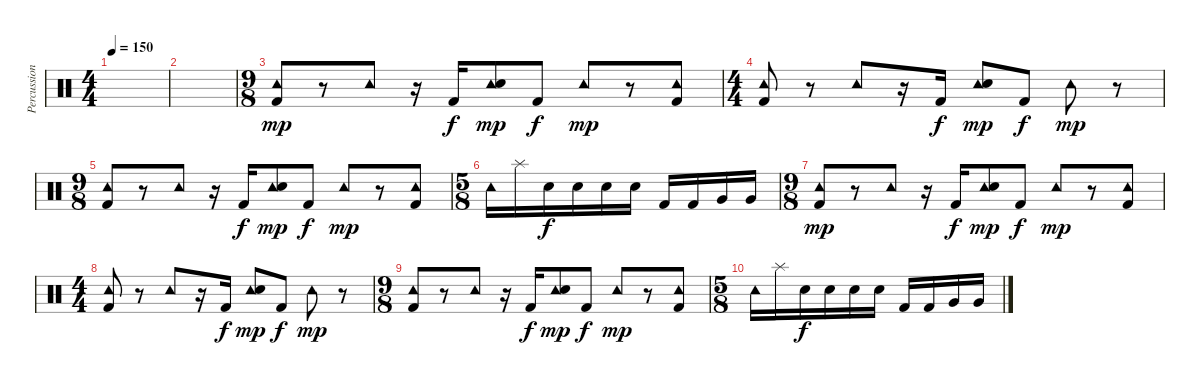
\track ("Percussion" "Percussion") {instrument percussion}
\staff {score}
\articulation defaults
\ts (4 4)
\tempo 150
\clef neutral
\ks c
|
|
\ts (9 8)
("Tambourine (hit)" "Kick (hit) 2").8{dy mp} r.8 "Tambourine (hit)".8 r.16 "Kick (hit) 2".16{dy f} ("Tambourine (hit)" "Electric Snare (hit)").8{dy mp} "Kick (hit) 2".8{dy f} "Tambourine (hit)".8{dy mp} r.8 ("Tambourine (hit)" "Kick (hit) 2").8 |
\ts (4 4)
("Tambourine (hit)" "Kick (hit) 2").8 r.8 "Tambourine (hit)".8 r.16 "Kick (hit) 2".16{dy f} ("Tambourine (hit)" "Electric Snare (hit)").8{dy mp} "Kick (hit) 2".8{dy f} "Tambourine (hit)".8{dy mp} r.8 |
\ts (9 8)
("Tambourine (hit)" "Kick (hit) 2").8 r.8 "Tambourine (hit)".8 r.16 "Kick (hit) 2".16{dy f} ("Tambourine (hit)" "Electric Snare (hit)").8{dy mp} "Kick (hit) 2".8{dy f} "Tambourine (hit)".8{dy mp} r.8 ("Tambourine (hit)" "Kick (hit) 2").8 |
\ts (5 8)
"Tambourine (hit)".16 "Splash (hit)".16 "Electric Snare (hit)".16{dy f} "Electric Snare (hit)".16 "Electric Snare (hit)".16 "Electric Snare (hit)".16 "Kick (hit) 2".16 "Kick (hit) 2".16 "Very Low Tom (hit)".16 "Very Low Tom (hit)".16 |
\ts (9 8)
("Tambourine (hit)" "Kick (hit) 2").8{dy mp} r.8 "Tambourine (hit)".8 r.16 "Kick (hit) 2".16{dy f} ("Tambourine (hit)" "Electric Snare (hit)").8{dy mp} "Kick (hit) 2".8{dy f} "Tambourine (hit)".8{dy mp} r.8 ("Tambourine (hit)" "Kick (hit) 2").8 |
\ts (4 4)
("Tambourine (hit)" "Kick (hit) 2").8 r.8 "Tambourine (hit)".8 r.16 "Kick (hit) 2".16{dy f} ("Tambourine (hit)" "Electric Snare (hit)").8{dy mp} "Kick (hit) 2".8{dy f} "Tambourine (hit)".8{dy mp} r.8 |
\ts (9 8)
("Tambourine (hit)" "Kick (hit) 2").8 r.8 "Tambourine (hit)".8 r.16 "Kick (hit) 2".16{dy f} ("Tambourine (hit)" "Electric Snare (hit)").8{dy mp} "Kick (hit) 2".8{dy f} "Tambourine (hit)".8{dy mp} r.8 ("Tambourine (hit)" "Kick (hit) 2").8 |
\ts (5 8)
"Tambourine (hit)".16 "Splash (hit)".16 "Electric Snare (hit)".16{dy f} "Electric Snare (hit)".16 "Electric Snare (hit)".16 "Electric Snare (hit)".16 "Kick (hit) 2".16 "Kick (hit) 2".16 "Very Low Tom (hit)".16 "Very Low Tom (hit)".16
